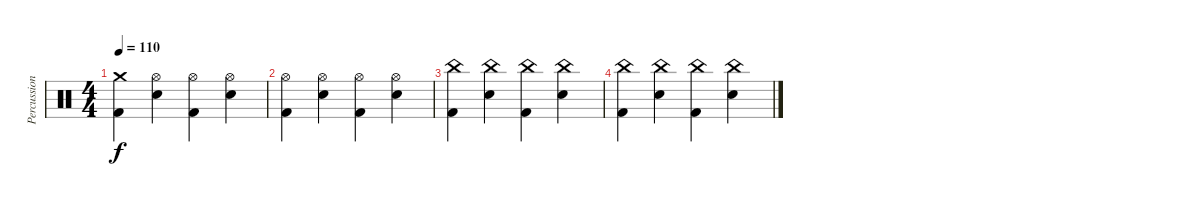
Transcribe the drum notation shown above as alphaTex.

\track ("Percussion" "Percussion") {instrument percussion}
\staff {score}
\articulation defaults
\ts (4 4)
\tempo 110
\clef neutral
\ks c
("Crash medium (hit)" "Kick (hit) 2").4{dy f} ("Hi-Hat (open)" "Snare (hit) 2").4 ("Hi-Hat (open)" "Kick (hit) 2").4 ("Hi-Hat (open)" "Snare (hit) 2").4 |
("Hi-Hat (open)" "Kick (hit) 2").4 ("Hi-Hat (open)" "Snare (hit) 2").4 ("Hi-Hat (open)" "Kick (hit) 2").4 ("Hi-Hat (open)" "Snare (hit) 2").4 |
("China (hit)" "Kick (hit) 2").4 ("China (hit)" "Snare (hit) 2").4 ("China (hit)" "Kick (hit) 2").4 ("China (hit)" "Snare (hit) 2").4 |
("China (hit)" "Kick (hit) 2").4 ("China (hit)" "Snare (hit) 2").4 ("China (hit)" "Kick (hit) 2").4 ("China (hit)" "Snare (hit) 2").4
